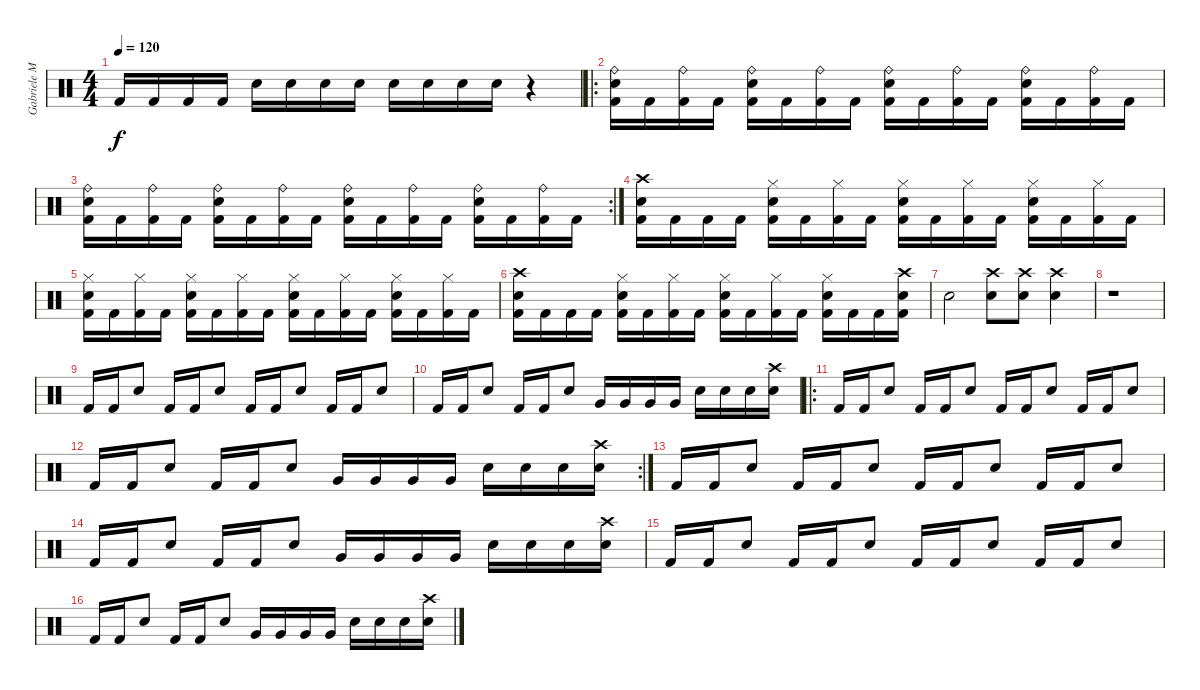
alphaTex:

\track ("Gabriele Malatesta" "Gabriele M") {instrument percussion}
\staff {score}
\articulation defaults
\ts (4 4)
\tempo 120
\clef neutral
\ks c "Kick (hit) 2".16{dy f} "Kick (hit) 2".16 "Kick (hit) 2".16 "Kick (hit) 2".16 "Electric Snare (hit)".16 "Electric Snare (hit)".16 "Electric Snare (hit)".16 "Electric Snare (hit)".16 "Electric Snare (hit)".16 "Electric Snare (hit)".16 "Electric Snare (hit)".16 "Electric Snare (hit)".16
r.4 |
\ro
("Ride (bell)" "Electric Snare (hit)" "Kick (hit) 2").16 "Kick (hit) 2".16 ("Ride (bell)" "Kick (hit) 2").16 "Kick (hit) 2".16 ("Ride (bell)" "Electric Snare (hit)" "Kick (hit) 2").16 "Kick (hit) 2".16 ("Ride (bell)" "Kick (hit) 2").16 "Kick (hit) 2".16 ("Ride (bell)" "Electric Snare (hit)" "Kick (hit) 2").16 "Kick (hit) 2".16 ("Ride (bell)" "Kick (hit) 2").16 "Kick (hit) 2".16 ("Ride (bell)" "Electric Snare (hit)" "Kick (hit) 2").16 "Kick (hit) 2".16 ("Ride (bell)" "Kick (hit) 2").16 "Kick (hit) 2".16 |
\rc 2
("Ride (bell)" "Electric Snare (hit)" "Kick (hit) 2").16 "Kick (hit) 2".16 ("Ride (bell)" "Kick (hit) 2").16 "Kick (hit) 2".16 ("Ride (bell)" "Electric Snare (hit)" "Kick (hit) 2").16 "Kick (hit) 2".16 ("Ride (bell)" "Kick (hit) 2").16 "Kick (hit) 2".16 ("Ride (bell)" "Electric Snare (hit)" "Kick (hit) 2").16 "Kick (hit) 2".16 ("Ride (bell)" "Kick (hit) 2").16 "Kick (hit) 2".16 ("Ride (bell)" "Electric Snare (hit)" "Kick (hit) 2").16 "Kick (hit) 2".16 ("Ride (bell)" "Kick (hit) 2").16 "Kick (hit) 2".16 |
("Crash high (hit)" "Electric Snare (hit)" "Kick (hit) 2").16 "Kick (hit) 2".16 "Kick (hit) 2".16 "Kick (hit) 2".16 ("Hi-Hat (closed)" "Electric Snare (hit)" "Kick (hit) 2").16 "Kick (hit) 2".16 ("Hi-Hat (closed)" "Kick (hit) 2").16 "Kick (hit) 2".16 ("Hi-Hat (closed)" "Electric Snare (hit)" "Kick (hit) 2").16 "Kick (hit) 2".16 ("Hi-Hat (closed)" "Kick (hit) 2").16 "Kick (hit) 2".16 ("Hi-Hat (closed)" "Electric Snare (hit)" "Kick (hit) 2").16 "Kick (hit) 2".16 ("Hi-Hat (closed)" "Kick (hit) 2").16 "Kick (hit) 2".16 |
("Hi-Hat (closed)" "Electric Snare (hit)" "Kick (hit) 2").16 "Kick (hit) 2".16 ("Hi-Hat (closed)" "Kick (hit) 2").16 "Kick (hit) 2".16 ("Hi-Hat (closed)" "Electric Snare (hit)" "Kick (hit) 2").16 "Kick (hit) 2".16 ("Hi-Hat (closed)" "Kick (hit) 2").16 "Kick (hit) 2".16 ("Hi-Hat (closed)" "Electric Snare (hit)" "Kick (hit) 2").16 "Kick (hit) 2".16 ("Hi-Hat (closed)" "Kick (hit) 2").16 "Kick (hit) 2".16 ("Hi-Hat (closed)" "Electric Snare (hit)" "Kick (hit) 2").16 "Kick (hit) 2".16 ("Hi-Hat (closed)" "Kick (hit) 2").16 "Kick (hit) 2".16 |
("Crash high (hit)" "Electric Snare (hit)" "Kick (hit) 2").16 "Kick (hit) 2".16 "Kick (hit) 2".16 "Kick (hit) 2".16 ("Hi-Hat (closed)" "Electric Snare (hit)" "Kick (hit) 2").16 "Kick (hit) 2".16 ("Hi-Hat (closed)" "Kick (hit) 2").16 "Kick (hit) 2".16 ("Hi-Hat (closed)" "Electric Snare (hit)" "Kick (hit) 2").16 "Kick (hit) 2".16 ("Hi-Hat (closed)" "Kick (hit) 2").16 "Kick (hit) 2".16 ("Hi-Hat (closed)" "Electric Snare (hit)" "Kick (hit) 2").16 "Kick (hit) 2".16 "Kick (hit) 2".16 ("Crash high (hit)" "Electric Snare (hit)" "Kick (hit) 2").16 |
"Electric Snare (hit)".2 ("Crash high (hit)" "Electric Snare (hit)").8 ("Crash high (hit)" "Electric Snare (hit)").8 ("Crash high (hit)" "Electric Snare (hit)").4 |
r.1 |
"Kick (hit) 2".16 "Kick (hit) 2".16 "Electric Snare (hit)".8 "Kick (hit) 2".16 "Kick (hit) 2".16 "Electric Snare (hit)".8 "Kick (hit) 2".16 "Kick (hit) 2".16 "Electric Snare (hit)".8 "Kick (hit) 2".16 "Kick (hit) 2".16 "Electric Snare (hit)".8 |
"Kick (hit) 2".16 "Kick (hit) 2".16 "Electric Snare (hit)".8 "Kick (hit) 2".16 "Kick (hit) 2".16 "Electric Snare (hit)".8 "Very Low Tom (hit)".16 "Very Low Tom (hit)".16 "Very Low Tom (hit)".16 "Very Low Tom (hit)".16 "Electric Snare (hit)".16 "Electric Snare (hit)".16 "Electric Snare (hit)".16 ("Crash high (hit)" "Electric Snare (hit)").16 |
\ro "Kick (hit) 2".16 "Kick (hit) 2".16 "Electric Snare (hit)".8 "Kick (hit) 2".16 "Kick (hit) 2".16 "Electric Snare (hit)".8 "Kick (hit) 2".16 "Kick (hit) 2".16 "Electric Snare (hit)".8 "Kick (hit) 2".16 "Kick (hit) 2".16 "Electric Snare (hit)".8
|
\rc 2 "Kick (hit) 2".16 "Kick (hit) 2".16 "Electric Snare (hit)".8 "Kick (hit) 2".16 "Kick (hit) 2".16 "Electric Snare (hit)".8 "Very Low Tom (hit)".16 "Very Low Tom (hit)".16 "Very Low Tom (hit)".16 "Very Low Tom (hit)".16 "Electric Snare (hit)".16 "Electric Snare (hit)".16 "Electric Snare (hit)".16
("Crash high (hit)" "Electric Snare (hit)").16 |
"Kick (hit) 2".16 "Kick (hit) 2".16 "Electric Snare (hit)".8 "Kick (hit) 2".16 "Kick (hit) 2".16 "Electric Snare (hit)".8 "Kick (hit) 2".16 "Kick (hit) 2".16 "Electric Snare (hit)".8 "Kick (hit) 2".16 "Kick (hit) 2".16 "Electric Snare (hit)".8 |
"Kick (hit) 2".16 "Kick (hit) 2".16 "Electric Snare (hit)".8 "Kick (hit) 2".16 "Kick (hit) 2".16 "Electric Snare (hit)".8 "Very Low Tom (hit)".16 "Very Low Tom (hit)".16 "Very Low Tom (hit)".16 "Very Low Tom (hit)".16 "Electric Snare (hit)".16 "Electric Snare (hit)".16 "Electric Snare (hit)".16 ("Crash high (hit)" "Electric Snare (hit)").16 |
"Kick (hit) 2".16 "Kick (hit) 2".16 "Electric Snare (hit)".8 "Kick (hit) 2".16 "Kick (hit) 2".16 "Electric Snare (hit)".8 "Kick (hit) 2".16 "Kick (hit) 2".16 "Electric Snare (hit)".8 "Kick (hit) 2".16 "Kick (hit) 2".16 "Electric Snare (hit)".8 |
"Kick (hit) 2".16 "Kick (hit) 2".16 "Electric Snare (hit)".8 "Kick (hit) 2".16 "Kick (hit) 2".16 "Electric Snare (hit)".8 "Very Low Tom (hit)".16 "Very Low Tom (hit)".16 "Very Low Tom (hit)".16 "Very Low Tom (hit)".16 "Electric Snare (hit)".16 "Electric Snare (hit)".16 "Electric Snare (hit)".16 ("Crash high (hit)" "Electric Snare (hit)").16
